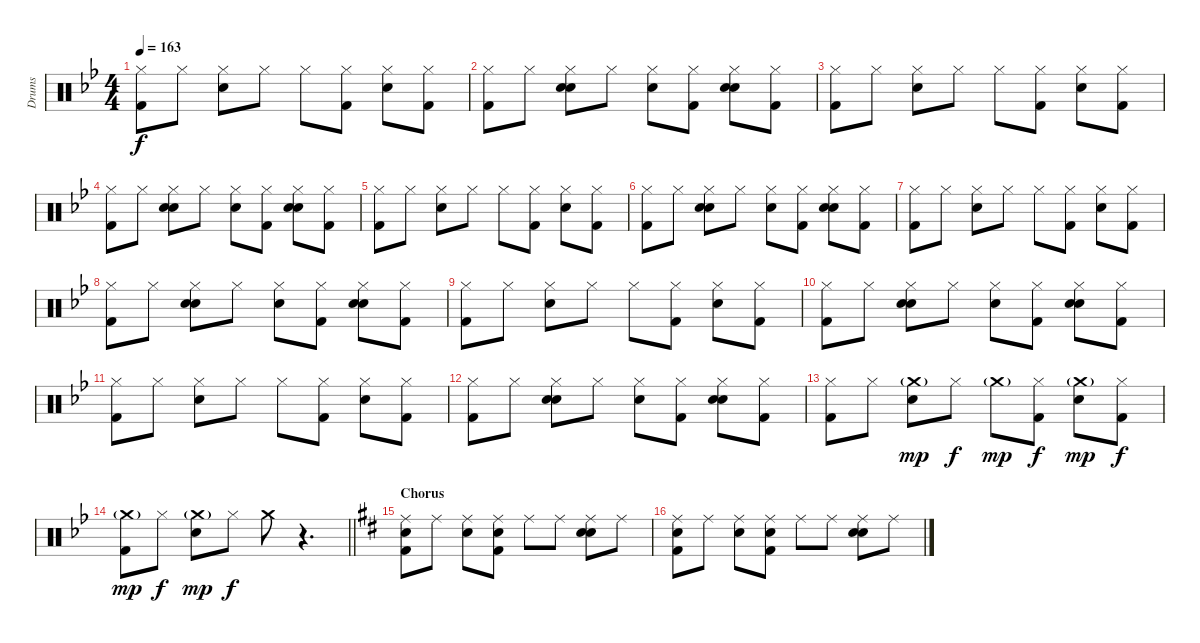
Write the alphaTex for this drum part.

\track ("Drums" "Drums") {instrument percussion}
\staff {score}
\articulation defaults
\ts (4 4)
\tempo 163
\clef neutral
\ks bb
("Hi-Hat (closed)" "Kick (hit) 2").8{dy f} "Hi-Hat (closed)".8 ("Hi-Hat (closed)" "Snare (hit) 2").8 "Hi-Hat (closed)".8 "Hi-Hat (closed)".8 ("Hi-Hat (closed)" "Kick (hit) 2").8 ("Hi-Hat (closed)" "Snare (hit) 2").8 ("Hi-Hat (closed)" "Kick (hit) 2").8 |
("Hi-Hat (closed)" "Kick (hit) 2").8 "Hi-Hat (closed)".8 ("Hi-Hat (closed)" "Hand Clap (hit)" "Snare (hit) 2").8 "Hi-Hat (closed)".8 ("Hi-Hat (closed)" "Hand Clap (hit)").8 ("Hi-Hat (closed)" "Kick (hit) 2").8 ("Hi-Hat (closed)" "Hand Clap (hit)" "Snare (hit) 2").8 ("Hi-Hat (closed)" "Kick (hit) 2").8 |
("Hi-Hat (closed)" "Kick (hit) 2").8 "Hi-Hat (closed)".8 ("Hi-Hat (closed)" "Snare (hit) 2").8 "Hi-Hat (closed)".8 "Hi-Hat (closed)".8 ("Hi-Hat (closed)" "Kick (hit) 2").8 ("Hi-Hat (closed)" "Snare (hit) 2").8 ("Hi-Hat (closed)" "Kick (hit) 2").8 |
("Hi-Hat (closed)" "Kick (hit) 2").8 "Hi-Hat (closed)".8 ("Hi-Hat (closed)" "Hand Clap (hit)" "Snare (hit) 2").8 "Hi-Hat (closed)".8 ("Hi-Hat (closed)" "Hand Clap (hit)").8 ("Hi-Hat (closed)" "Kick (hit) 2").8 ("Hi-Hat (closed)" "Hand Clap (hit)" "Snare (hit) 2").8 ("Hi-Hat (closed)" "Kick (hit) 2").8 |
("Hi-Hat (closed)" "Kick (hit) 2").8 "Hi-Hat (closed)".8 ("Hi-Hat (closed)" "Snare (hit) 2").8 "Hi-Hat (closed)".8 "Hi-Hat (closed)".8 ("Hi-Hat (closed)" "Kick (hit) 2").8 ("Hi-Hat (closed)" "Snare (hit) 2").8 ("Hi-Hat (closed)" "Kick (hit) 2").8 |
("Hi-Hat (closed)" "Kick (hit) 2").8 "Hi-Hat (closed)".8 ("Hi-Hat (closed)" "Hand Clap (hit)" "Snare (hit) 2").8 "Hi-Hat (closed)".8 ("Hi-Hat (closed)" "Hand Clap (hit)").8 ("Hi-Hat (closed)" "Kick (hit) 2").8 ("Hi-Hat (closed)" "Hand Clap (hit)" "Snare (hit) 2").8 ("Hi-Hat (closed)" "Kick (hit) 2").8 |
("Hi-Hat (closed)" "Kick (hit) 2").8 "Hi-Hat (closed)".8 ("Hi-Hat (closed)" "Snare (hit) 2").8 "Hi-Hat (closed)".8 "Hi-Hat (closed)".8 ("Hi-Hat (closed)" "Kick (hit) 2").8 ("Hi-Hat (closed)" "Snare (hit) 2").8 ("Hi-Hat (closed)" "Kick (hit) 2").8 |
("Hi-Hat (closed)" "Kick (hit) 2").8 "Hi-Hat (closed)".8 ("Hi-Hat (closed)" "Hand Clap (hit)" "Snare (hit) 2").8 "Hi-Hat (closed)".8 ("Hi-Hat (closed)" "Hand Clap (hit)").8 ("Hi-Hat (closed)" "Kick (hit) 2").8 ("Hi-Hat (closed)" "Hand Clap (hit)" "Snare (hit) 2").8 ("Hi-Hat (closed)" "Kick (hit) 2").8 |
("Hi-Hat (closed)" "Kick (hit) 2").8 "Hi-Hat (closed)".8 ("Hi-Hat (closed)" "Snare (hit) 2").8 "Hi-Hat (closed)".8 "Hi-Hat (closed)".8 ("Hi-Hat (closed)" "Kick (hit) 2").8 ("Hi-Hat (closed)" "Snare (hit) 2").8 ("Hi-Hat (closed)" "Kick (hit) 2").8 |
("Hi-Hat (closed)" "Kick (hit) 2").8 "Hi-Hat (closed)".8 ("Hi-Hat (closed)" "Hand Clap (hit)" "Snare (hit) 2").8 "Hi-Hat (closed)".8 ("Hi-Hat (closed)" "Hand Clap (hit)").8 ("Hi-Hat (closed)" "Kick (hit) 2").8 ("Hi-Hat (closed)" "Hand Clap (hit)" "Snare (hit) 2").8 ("Hi-Hat (closed)" "Kick (hit) 2").8 |
("Hi-Hat (closed)" "Kick (hit) 2").8 "Hi-Hat (closed)".8 ("Hi-Hat (closed)" "Snare (hit) 2").8 "Hi-Hat (closed)".8 "Hi-Hat (closed)".8 ("Hi-Hat (closed)" "Kick (hit) 2").8 ("Hi-Hat (closed)" "Snare (hit) 2").8 ("Hi-Hat (closed)" "Kick (hit) 2").8 |
("Hi-Hat (closed)" "Kick (hit) 2").8 "Hi-Hat (closed)".8 ("Hi-Hat (closed)" "Hand Clap (hit)" "Snare (hit) 2").8 "Hi-Hat (closed)".8 ("Hi-Hat (closed)" "Hand Clap (hit)").8 ("Hi-Hat (closed)" "Kick (hit) 2").8 ("Hi-Hat (closed)" "Hand Clap (hit)" "Snare (hit) 2").8 ("Hi-Hat (closed)" "Kick (hit) 2").8 |
("Hi-Hat (closed)" "Kick (hit) 2").8 "Hi-Hat (closed)".8 ("Crash medium (hit)"{g} "Snare (hit) 2").8{dy mp} "Hi-Hat (closed)".8{dy f} "Crash medium (hit)"{g}.8{dy mp} ("Hi-Hat (closed)" "Kick (hit) 2").8{dy f} ("Crash medium (hit)"{g} "Snare (hit) 2").8{dy mp} ("Hi-Hat (closed)" "Kick (hit) 2").8{dy f} |
\barLineRight lightlight
("Crash medium (hit)"{g} "Kick (hit) 2").8{dy mp} "Hi-Hat (closed)".8{dy f} ("Crash medium (hit)"{g} "Snare (hit) 2").8{dy mp} "Hi-Hat (closed)".8{dy f} "Crash medium (hit)".8 r.4{d} |
\section ("" "Chorus")
\ks d
("Ride (middle)" "Snare (hit) 2" "Kick (hit) 2").8 "Ride (middle)".8 ("Ride (middle)" "Hand Clap (hit)").8 ("Ride (middle)" "Snare (hit) 2" "Kick (hit) 2").8 "Ride (middle)".8 "Ride (middle)".8 ("Ride (middle)" "Hand Clap (hit)" "Snare (hit) 2").8 "Ride (middle)".8 |
("Ride (middle)" "Snare (hit) 2" "Kick (hit) 2").8 "Ride (middle)".8 ("Ride (middle)" "Hand Clap (hit)").8 ("Ride (middle)" "Snare (hit) 2" "Kick (hit) 2").8 "Ride (middle)".8 "Ride (middle)".8 ("Ride (middle)" "Hand Clap (hit)" "Snare (hit) 2").8 "Ride (middle)".8
